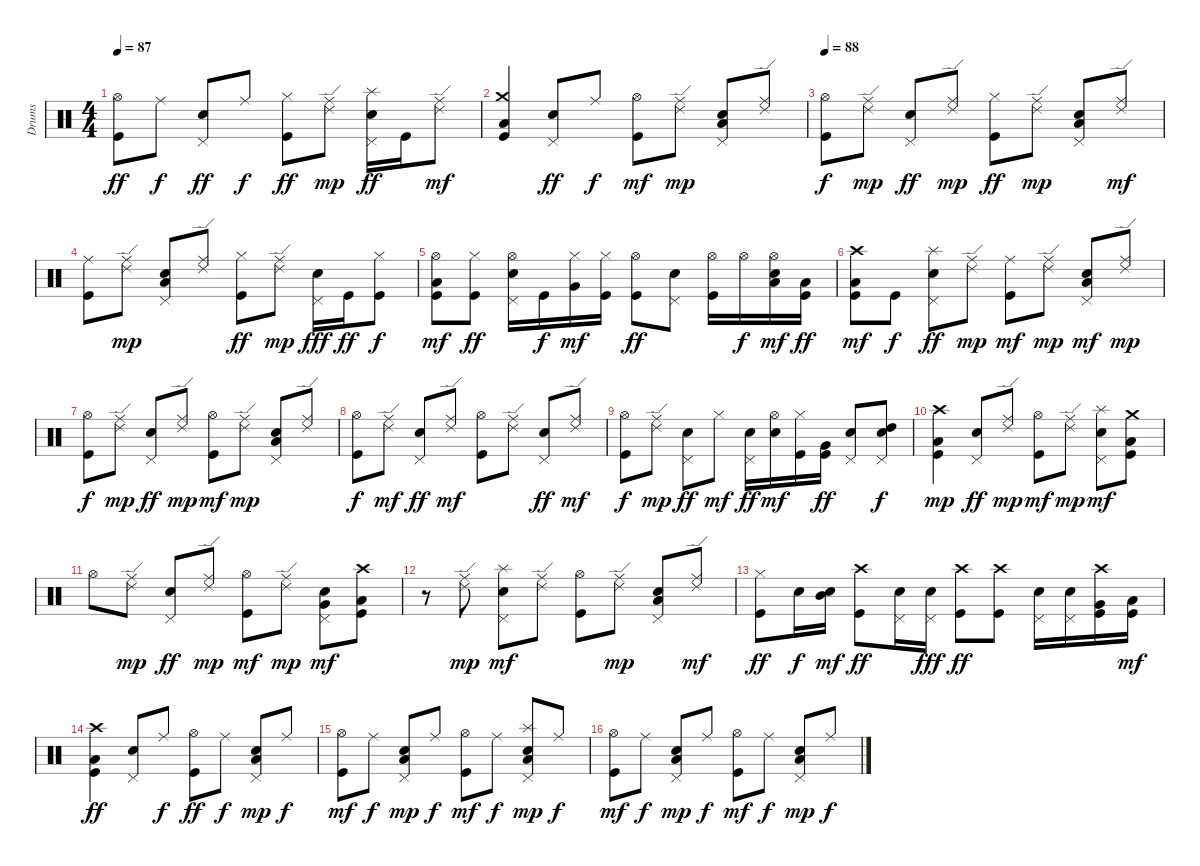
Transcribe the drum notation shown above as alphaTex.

\track ("Drums" "Drums") {instrument percussion}
\staff {score}
\articulation defaults
\ts (4 4)
\tempo 87
\clef neutral
\ks c
("Hi-Hat (open)" "Kick (hit)").8{dy ff} "Ride (middle)".8{dy f} ("Pedal Hi-Hat (hit)" "Snare (hit) 2").8{dy ff} "Ride (middle)".8{dy f} ("Hi-Hat (closed)" "Kick (hit)").8{dy ff} ("Ride (middle)" "Ride (edge) 2").8{dy mp} ("Splash (hit)" "Pedal Hi-Hat (hit)" "Snare (hit) 2").16{dy ff} "Kick (hit)".16 ("Ride (edge) 2" "Ride (middle)").8{dy mf} |
("Crash medium (hit)" "Kick (hit)" "Low Floor Tom (hit)").4 ("Pedal Hi-Hat (hit)" "Snare (hit) 2").8{dy ff} "Ride (middle)".8{dy f} ("Hi-Hat (open)" "Kick (hit)").8{dy mf} ("Ride (middle)" "Ride (edge) 2").8{dy mp} ("Pedal Hi-Hat (hit)" "Snare (hit) 2" "Low Tom (hit)").8 ("Ride (middle)" "Ride (edge) 2").8 |
\tempo 88
("Hi-Hat (open)" "Kick (hit)").8{dy f} ("Ride (middle)" "Ride (edge) 2").8{dy mp} ("Pedal Hi-Hat (hit)" "Snare (hit) 2").8{dy ff} ("Ride (middle)" "Ride (edge) 2").8{dy mp} ("Hi-Hat (closed)" "Kick (hit)").8{dy ff} ("Ride (middle)" "Ride (edge) 2").8{dy mp} ("Pedal Hi-Hat (hit)" "Snare (hit) 2" "Low Tom (hit)").8 ("Ride (edge) 2" "Ride (middle)").8{dy mf} |
("Ride (middle)" "Kick (hit)").8 ("Ride (middle)" "Ride (edge) 2").8{dy mp} ("Pedal Hi-Hat (hit)" "Snare (hit) 2" "Low Tom (hit)").8 ("Ride (middle)" "Ride (edge) 2").8 ("Hi-Hat (closed)" "Kick (hit)").8{dy ff} ("Ride (middle)" "Ride (edge) 2").8{dy mp} ("Pedal Hi-Hat (hit)" "Snare (hit) 2").16{dy fff} "Kick (hit)".16{dy ff} ("Hi-Hat (closed)" "Kick (hit)").8{dy f} |
("Hi-Hat (open)" "Kick (hit)" "Low Floor Tom (hit)").8{dy mf} ("Hi-Hat (closed)" "Kick (hit)").8{dy ff} ("Hi-Hat (open)" "Pedal Hi-Hat (hit)" "Snare (hit) 2").16 "Kick (hit)".16{dy f} ("Hi-Hat (closed)" "Very Low Tom (hit)").16{dy mf} ("Hi-Hat (closed)" "Kick (hit)").16 ("Hi-Hat (open)" "Kick (hit)").8{dy ff} ("Pedal Hi-Hat (hit)" "Snare (hit) 2").8 ("Hi-Hat (open)" "Kick (hit)").16 "Hi-Hat (open)".16{dy f} ("Hi-Hat (open)" "Snare (hit) 2" "Low Tom (hit)").16{dy mf} ("Kick (hit)" "Low Floor Tom (hit)").16{dy ff} |
("Crash high (hit)" "Kick (hit)" "Low Floor Tom (hit)").8{dy mf} "Kick (hit)".8{dy f} ("Splash (hit)" "Pedal Hi-Hat (hit)" "Snare (hit) 2").8{dy ff} ("Ride (middle)" "Ride (edge) 2").8{dy mp} ("Ride (middle)" "Kick (hit)").8{dy mf} ("Ride (middle)" "Ride (edge) 2").8{dy mp} ("Pedal Hi-Hat (hit)" "Snare (hit) 2" "Low Tom (hit)").8{dy mf} ("Ride (middle)" "Ride (edge) 2").8{dy mp} |
("Hi-Hat (open)" "Kick (hit)").8{dy f} ("Ride (middle)" "Ride (edge) 2").8{dy mp} ("Pedal Hi-Hat (hit)" "Snare (hit) 2").8{dy ff} ("Ride (middle)" "Ride (edge) 2").8{dy mp} ("Hi-Hat (open)" "Kick (hit)").8{dy mf} ("Ride (middle)" "Ride (edge) 2").8{dy mp} ("Pedal Hi-Hat (hit)" "Snare (hit) 2" "Low Tom (hit)").8 ("Ride (middle)" "Ride (edge) 2").8 |
("Hi-Hat (open)" "Kick (hit)").8{dy f} ("Ride (middle)" "Ride (edge) 2").8{dy mf} ("Pedal Hi-Hat (hit)" "Snare (hit) 2").8{dy ff} ("Ride (middle)" "Ride (edge) 2").8{dy mf} ("Hi-Hat (open)" "Kick (hit)").8 ("Ride (middle)" "Ride (edge) 2").8 ("Pedal Hi-Hat (hit)" "Snare (hit) 2").8{dy ff} ("Ride (middle)" "Ride (edge) 2").8{dy mf} |
("Hi-Hat (open)" "Kick (hit)").8{dy f} ("Ride (middle)" "Ride (edge) 2").8{dy mp} ("Pedal Hi-Hat (hit)" "Snare (hit) 2").8{dy ff} "Hi-Hat (closed)".8{dy mf} ("Pedal Hi-Hat (hit)" "Snare (hit) 2").16{dy ff} ("Hi-Hat (open)" "Snare (hit) 2").16{dy mf} ("Hi-Hat (closed)" "Kick (hit)").16 ("Very Low Tom (hit)" "Kick (hit)").16{dy ff} ("Pedal Hi-Hat (hit)" "Snare (hit) 2").8 ("Pedal Hi-Hat (hit)" "Snare (hit) 2" "High Tom (hit)").8{dy f} |
("Crash high (hit)" "Kick (hit)" "Low Floor Tom (hit)").4{dy mp} ("Pedal Hi-Hat (hit)" "Snare (hit) 2").8{dy ff} ("Ride (middle)" "Ride (edge) 2").8{dy mp} ("Hi-Hat (open)" "Kick (hit)").8{dy mf} ("Ride (middle)" "Ride (edge) 2").8{dy mp} ("Splash (hit)" "Pedal Hi-Hat (hit)" "Snare (hit) 2").8{dy mf} ("Crash medium (hit)" "Kick (hit)" "Low Floor Tom (hit)").8 |
"Hi-Hat (open)".8 ("Ride (middle)" "Ride (edge) 2").8{dy mp} ("Pedal Hi-Hat (hit)" "Snare (hit) 2").8{dy ff} ("Ride (middle)" "Ride (edge) 2").8{dy mp} ("Hi-Hat (open)" "Kick (hit)").8{dy mf} ("Ride (middle)" "Ride (edge) 2").8{dy mp} ("Pedal Hi-Hat (hit)" "Snare (hit) 2" "Very Low Tom (hit)").8{dy mf} ("Crash high (hit)" "Kick (hit)" "Low Floor Tom (hit)").8 |
r.8 ("Ride (middle)" "Ride (edge) 2").8{dy mp} ("Splash (hit)" "Pedal Hi-Hat (hit)" "Snare (hit) 2").8{dy mf} ("Ride (middle)" "Ride (edge) 2").8 ("Hi-Hat (open)" "Kick (hit)").8 ("Ride (middle)" "Ride (edge) 2").8{dy mp} ("Pedal Hi-Hat (hit)" "Snare (hit) 2" "Low Tom (hit)").8 ("Ride (middle)" "Ride (edge) 2").8{dy mf} |
("Hi-Hat (closed)" "Kick (hit)").8{dy ff} "Snare (hit) 2".16{dy f} ("Snare (hit) 2" "Mid Tom (hit)").16{dy mf} ("Crash high (hit)" "Kick (hit)").8{dy ff} ("Pedal Hi-Hat (hit)" "Snare (hit) 2").16 ("Pedal Hi-Hat (hit)" "Snare (hit) 2").16{dy fff} ("Crash high (hit)" "Kick (hit)").8{dy ff} ("Crash high (hit)" "Kick (hit)").8 ("Pedal Hi-Hat (hit)" "Snare (hit) 2").16 ("Pedal Hi-Hat (hit)" "Snare (hit) 2").16 ("Crash high (hit)" "Very Low Tom (hit)" "Kick (hit)").16 ("Low Floor Tom (hit)" "Kick (hit)").16{dy mf} |
("Crash high (hit)" "Low Floor Tom (hit)" "Kick (hit)").4{dy ff} ("Pedal Hi-Hat (hit)" "Snare (hit) 2").8 "Ride (middle)".8{dy f} ("Hi-Hat (open)" "Kick (hit)").8{dy ff} "Ride (middle)".8{dy f} ("Pedal Hi-Hat (hit)" "Snare (hit) 2" "Low Tom (hit)").8{dy mp} "Ride (middle)".8{dy f} |
("Hi-Hat (open)" "Kick (hit)").8{dy mf} "Ride (middle)".8{dy f} ("Pedal Hi-Hat (hit)" "Snare (hit) 2" "Low Tom (hit)").8{dy mp} "Ride (middle)".8{dy f} ("Hi-Hat (open)" "Kick (hit)").8{dy mf} "Ride (middle)".8{dy f} ("Splash (hit)" "Pedal Hi-Hat (hit)" "Snare (hit) 2" "Low Tom (hit)").8{dy mp} "Ride (middle)".8{dy f} |
("Hi-Hat (open)" "Kick (hit)").8{dy mf} "Ride (middle)".8{dy f} ("Pedal Hi-Hat (hit)" "Snare (hit) 2" "Low Tom (hit)").8{dy mp} "Ride (middle)".8{dy f} ("Hi-Hat (open)" "Kick (hit)").8{dy mf} "Ride (middle)".8{dy f} ("Pedal Hi-Hat (hit)" "Snare (hit) 2" "Low Tom (hit)").8{dy mp} "Ride (middle)".8{dy f}
